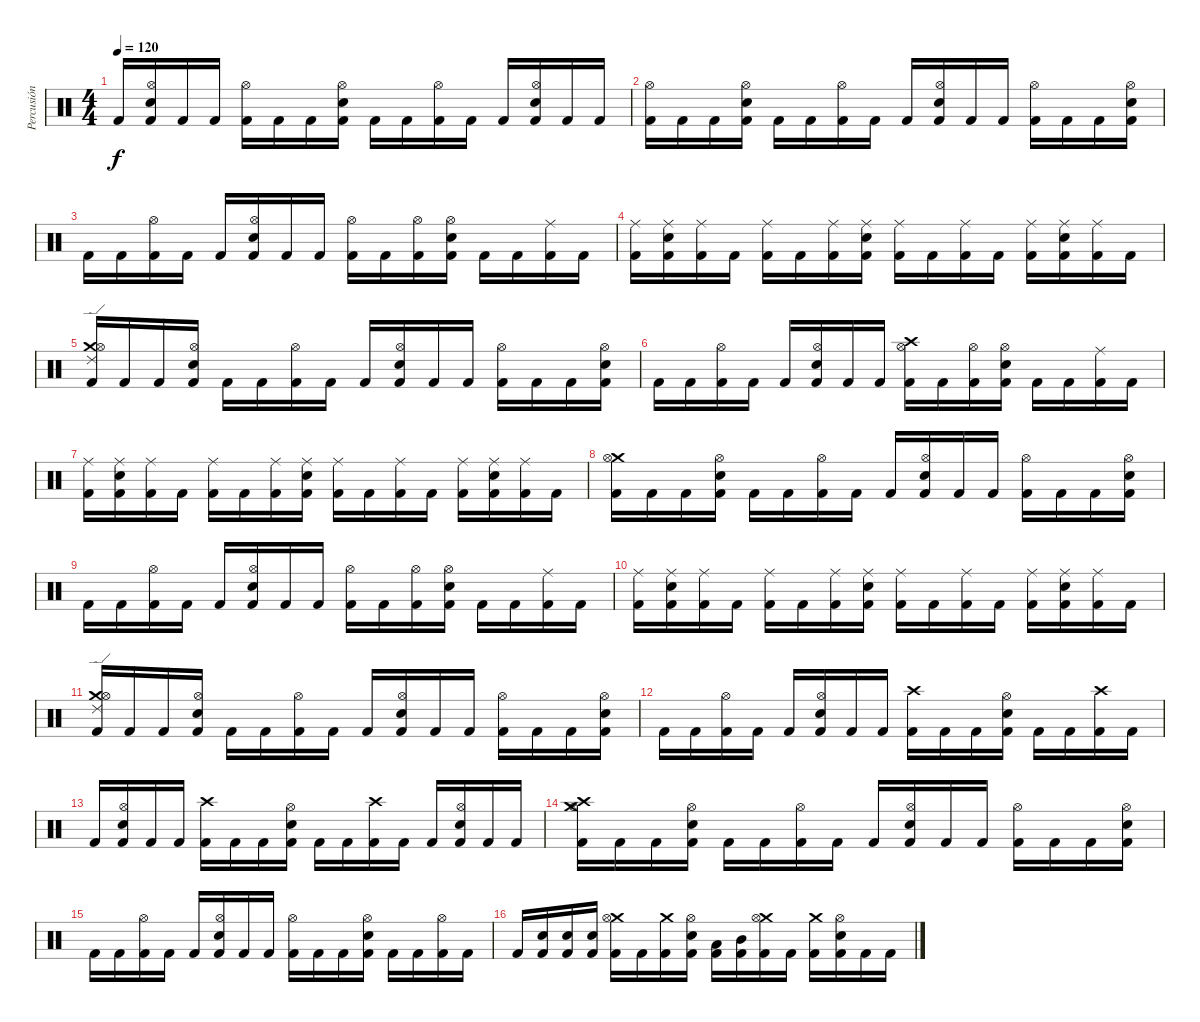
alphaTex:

\track ("Percusión" "Percusión") {instrument percussion}
\staff {score}
\articulation defaults
\ts (4 4)
\tempo 120
\clef neutral
\ks c "Kick (hit) 2".16{dy f}
("Kick (hit) 2" "Hi-Hat (open)" "Electric Snare (hit)").16 "Kick (hit) 2".16 "Kick (hit) 2".16 ("Kick (hit) 2" "Hi-Hat (open)").16 "Kick (hit) 2".16 "Kick (hit) 2".16 ("Kick (hit) 2" "Hi-Hat (open)" "Electric Snare (hit)").16 "Kick (hit) 2".16 "Kick (hit) 2".16 ("Kick (hit) 2" "Hi-Hat (open)").16 "Kick (hit) 2".16 "Kick (hit) 2".16 ("Kick (hit) 2" "Hi-Hat (open)" "Electric Snare (hit)").16 "Kick (hit) 2".16 "Kick (hit) 2".16 |
("Kick (hit) 2" "Hi-Hat (open)").16 "Kick (hit) 2".16 "Kick (hit) 2".16 ("Kick (hit) 2" "Hi-Hat (open)" "Electric Snare (hit)").16 "Kick (hit) 2".16 "Kick (hit) 2".16 ("Kick (hit) 2" "Hi-Hat (open)").16 "Kick (hit) 2".16 "Kick (hit) 2".16 ("Kick (hit) 2" "Hi-Hat (open)" "Electric Snare (hit)").16 "Kick (hit) 2".16 "Kick (hit) 2".16 ("Kick (hit) 2" "Hi-Hat (open)").16 "Kick (hit) 2".16 "Kick (hit) 2".16 ("Kick (hit) 2" "Hi-Hat (open)" "Electric Snare (hit)").16 |
"Kick (hit) 2".16 "Kick (hit) 2".16 ("Kick (hit) 2" "Hi-Hat (open)").16 "Kick (hit) 2".16 "Kick (hit) 2".16 ("Kick (hit) 2" "Hi-Hat (open)" "Electric Snare (hit)").16 "Kick (hit) 2".16 "Kick (hit) 2".16 ("Kick (hit) 2" "Hi-Hat (open)").16 "Kick (hit) 2".16 ("Kick (hit) 2" "Hi-Hat (open)").16 ("Kick (hit) 2" "Hi-Hat (open)" "Electric Snare (hit)").16 "Kick (hit) 2".16 "Kick (hit) 2".16 ("Kick (hit) 2" "Ride (middle)").16 "Kick (hit) 2".16 |
("Kick (hit) 2" "Ride (middle)").16 ("Kick (hit) 2" "Ride (middle)" "Electric Snare (hit)").16 ("Kick (hit) 2" "Ride (middle)").16 "Kick (hit) 2".16 ("Kick (hit) 2" "Ride (middle)").16 "Kick (hit) 2".16 ("Kick (hit) 2" "Ride (middle)").16 ("Kick (hit) 2" "Ride (middle)" "Electric Snare (hit)").16 ("Kick (hit) 2" "Ride (middle)").16 "Kick (hit) 2".16 ("Kick (hit) 2" "Ride (middle)").16 "Kick (hit) 2".16 ("Kick (hit) 2" "Ride (middle)").16 ("Kick (hit) 2" "Ride (middle)" "Electric Snare (hit)").16 ("Kick (hit) 2" "Ride (middle)").16 "Kick (hit) 2".16 |
("Kick (hit) 2" "Crash medium (hit)" "Ride (edge) 2" "Hi-Hat (open)").16 "Kick (hit) 2".16 "Kick (hit) 2".16 ("Kick (hit) 2" "Hi-Hat (open)" "Electric Snare (hit)").16 "Kick (hit) 2".16 "Kick (hit) 2".16 ("Kick (hit) 2" "Hi-Hat (open)").16 "Kick (hit) 2".16 "Kick (hit) 2".16 ("Kick (hit) 2" "Hi-Hat (open)" "Electric Snare (hit)").16 "Kick (hit) 2".16 "Kick (hit) 2".16 ("Kick (hit) 2" "Hi-Hat (open)").16 "Kick (hit) 2".16 "Kick (hit) 2".16 ("Kick (hit) 2" "Hi-Hat (open)" "Electric Snare (hit)").16 |
"Kick (hit) 2".16 "Kick (hit) 2".16 ("Kick (hit) 2" "Hi-Hat (open)").16 "Kick (hit) 2".16 "Kick (hit) 2".16 ("Kick (hit) 2" "Hi-Hat (open)" "Electric Snare (hit)").16 "Kick (hit) 2".16 "Kick (hit) 2".16 ("Kick (hit) 2" "Crash high (hit)" "Hi-Hat (open)").16 "Kick (hit) 2".16 ("Kick (hit) 2" "Hi-Hat (open)").16 ("Kick (hit) 2" "Hi-Hat (open)" "Electric Snare (hit)").16 "Kick (hit) 2".16 "Kick (hit) 2".16 ("Kick (hit) 2" "Ride (middle)").16 "Kick (hit) 2".16 |
("Kick (hit) 2" "Ride (middle)").16 ("Kick (hit) 2" "Ride (middle)" "Electric Snare (hit)").16 ("Kick (hit) 2" "Ride (middle)").16 "Kick (hit) 2".16 ("Kick (hit) 2" "Ride (middle)").16 "Kick (hit) 2".16 ("Kick (hit) 2" "Ride (middle)").16 ("Kick (hit) 2" "Ride (middle)" "Electric Snare (hit)").16 ("Kick (hit) 2" "Ride (middle)").16 "Kick (hit) 2".16 ("Kick (hit) 2" "Ride (middle)").16 "Kick (hit) 2".16 ("Kick (hit) 2" "Ride (middle)").16 ("Kick (hit) 2" "Ride (middle)" "Electric Snare (hit)").16 ("Kick (hit) 2" "Ride (middle)").16 "Kick (hit) 2".16 |
("Kick (hit) 2" "Crash medium (hit)" "Hi-Hat (open)").16 "Kick (hit) 2".16 "Kick (hit) 2".16 ("Kick (hit) 2" "Hi-Hat (open)" "Electric Snare (hit)").16 "Kick (hit) 2".16 "Kick (hit) 2".16 ("Kick (hit) 2" "Hi-Hat (open)").16 "Kick (hit) 2".16 "Kick (hit) 2".16 ("Kick (hit) 2" "Hi-Hat (open)" "Electric Snare (hit)").16 "Kick (hit) 2".16 "Kick (hit) 2".16 ("Kick (hit) 2" "Hi-Hat (open)").16 "Kick (hit) 2".16 "Kick (hit) 2".16 ("Kick (hit) 2" "Hi-Hat (open)" "Electric Snare (hit)").16 |
"Kick (hit) 2".16 "Kick (hit) 2".16 ("Kick (hit) 2" "Hi-Hat (open)").16 "Kick (hit) 2".16 "Kick (hit) 2".16 ("Kick (hit) 2" "Hi-Hat (open)" "Electric Snare (hit)").16 "Kick (hit) 2".16 "Kick (hit) 2".16 ("Kick (hit) 2" "Hi-Hat (open)").16 "Kick (hit) 2".16 ("Kick (hit) 2" "Hi-Hat (open)").16 ("Kick (hit) 2" "Hi-Hat (open)" "Electric Snare (hit)").16 "Kick (hit) 2".16 "Kick (hit) 2".16 ("Kick (hit) 2" "Ride (middle)").16 "Kick (hit) 2".16 |
("Kick (hit) 2" "Ride (middle)").16 ("Kick (hit) 2" "Ride (middle)" "Electric Snare (hit)").16 ("Kick (hit) 2" "Ride (middle)").16 "Kick (hit) 2".16 ("Kick (hit) 2" "Ride (middle)").16 "Kick (hit) 2".16 ("Kick (hit) 2" "Ride (middle)").16 ("Kick (hit) 2" "Ride (middle)" "Electric Snare (hit)").16 ("Kick (hit) 2" "Ride (middle)").16 "Kick (hit) 2".16 ("Kick (hit) 2" "Ride (middle)").16 "Kick (hit) 2".16 ("Kick (hit) 2" "Ride (middle)").16 ("Kick (hit) 2" "Ride (middle)" "Electric Snare (hit)").16 ("Kick (hit) 2" "Ride (middle)").16 "Kick (hit) 2".16 |
("Kick (hit) 2" "Crash medium (hit)" "Ride (edge) 2" "Hi-Hat (open)").16 "Kick (hit) 2".16 "Kick (hit) 2".16 ("Kick (hit) 2" "Hi-Hat (open)" "Electric Snare (hit)").16 "Kick (hit) 2".16 "Kick (hit) 2".16 ("Kick (hit) 2" "Hi-Hat (open)").16 "Kick (hit) 2".16 "Kick (hit) 2".16 ("Kick (hit) 2" "Hi-Hat (open)" "Electric Snare (hit)").16 "Kick (hit) 2".16 "Kick (hit) 2".16 ("Kick (hit) 2" "Hi-Hat (open)").16 "Kick (hit) 2".16 "Kick (hit) 2".16 ("Kick (hit) 2" "Hi-Hat (open)" "Electric Snare (hit)").16 |
"Kick (hit) 2".16 "Kick (hit) 2".16 ("Kick (hit) 2" "Hi-Hat (open)").16 "Kick (hit) 2".16 "Kick (hit) 2".16 ("Kick (hit) 2" "Hi-Hat (open)" "Electric Snare (hit)").16 "Kick (hit) 2".16 "Kick (hit) 2".16 ("Kick (hit) 2" "Crash high (hit)").16 "Kick (hit) 2".16 "Kick (hit) 2".16 ("Kick (hit) 2" "Hi-Hat (open)" "Electric Snare (hit)").16 "Kick (hit) 2".16 "Kick (hit) 2".16 ("Kick (hit) 2" "Crash high (hit)").16 "Kick (hit) 2".16 |
"Kick (hit) 2".16 ("Kick (hit) 2" "Hi-Hat (open)" "Electric Snare (hit)").16 "Kick (hit) 2".16 "Kick (hit) 2".16 ("Kick (hit) 2" "Crash high (hit)").16 "Kick (hit) 2".16 "Kick (hit) 2".16 ("Kick (hit) 2" "Hi-Hat (open)" "Electric Snare (hit)").16 "Kick (hit) 2".16 "Kick (hit) 2".16 ("Kick (hit) 2" "Crash high (hit)").16 "Kick (hit) 2".16 "Kick (hit) 2".16 ("Kick (hit) 2" "Hi-Hat (open)" "Electric Snare (hit)").16 "Kick (hit) 2".16 "Kick (hit) 2".16 |
("Kick (hit) 2" "Crash high (hit)" "Crash medium (hit)" "Hi-Hat (open)").16 "Kick (hit) 2".16 "Kick (hit) 2".16 ("Kick (hit) 2" "Hi-Hat (open)" "Electric Snare (hit)").16 "Kick (hit) 2".16 "Kick (hit) 2".16 ("Kick (hit) 2" "Hi-Hat (open)").16 "Kick (hit) 2".16 "Kick (hit) 2".16 ("Kick (hit) 2" "Hi-Hat (open)" "Electric Snare (hit)").16 "Kick (hit) 2".16 "Kick (hit) 2".16 ("Kick (hit) 2" "Hi-Hat (open)").16 "Kick (hit) 2".16 "Kick (hit) 2".16 ("Kick (hit) 2" "Hi-Hat (open)" "Electric Snare (hit)").16 |
"Kick (hit) 2".16 "Kick (hit) 2".16 ("Kick (hit) 2" "Hi-Hat (open)").16 "Kick (hit) 2".16 "Kick (hit) 2".16 ("Kick (hit) 2" "Hi-Hat (open)" "Electric Snare (hit)").16 "Kick (hit) 2".16 "Kick (hit) 2".16 ("Kick (hit) 2" "Hi-Hat (open)").16 "Kick (hit) 2".16 "Kick (hit) 2".16 ("Kick (hit) 2" "Hi-Hat (open)" "Electric Snare (hit)").16 "Kick (hit) 2".16 "Kick (hit) 2".16 ("Kick (hit) 2" "Hi-Hat (open)").16 "Kick (hit) 2".16 |
"Kick (hit) 2".16 ("Kick (hit) 2" "Electric Snare (hit)").16 ("Kick (hit) 2" "Electric Snare (hit)").16 ("Kick (hit) 2" "Electric Snare (hit)").16 ("Kick (hit) 2" "Crash medium (hit)" "Hi-Hat (open)").16 "Kick (hit) 2".16 ("Kick (hit) 2" "Crash medium (hit)").16 ("Kick (hit) 2" "Hi-Hat (open)" "Electric Snare (hit)").16 ("Kick (hit) 2" "Low Tom (hit)").16 ("Kick (hit) 2" "Mid Tom (hit)").16 ("Kick (hit) 2" "Crash medium (hit)" "Hi-Hat (open)").16 "Kick (hit) 2".16 ("Kick (hit) 2" "Crash medium (hit)").16 ("Kick (hit) 2" "Hi-Hat (open)" "Electric Snare (hit)").16 "Kick (hit) 2".16 "Kick (hit) 2".16
